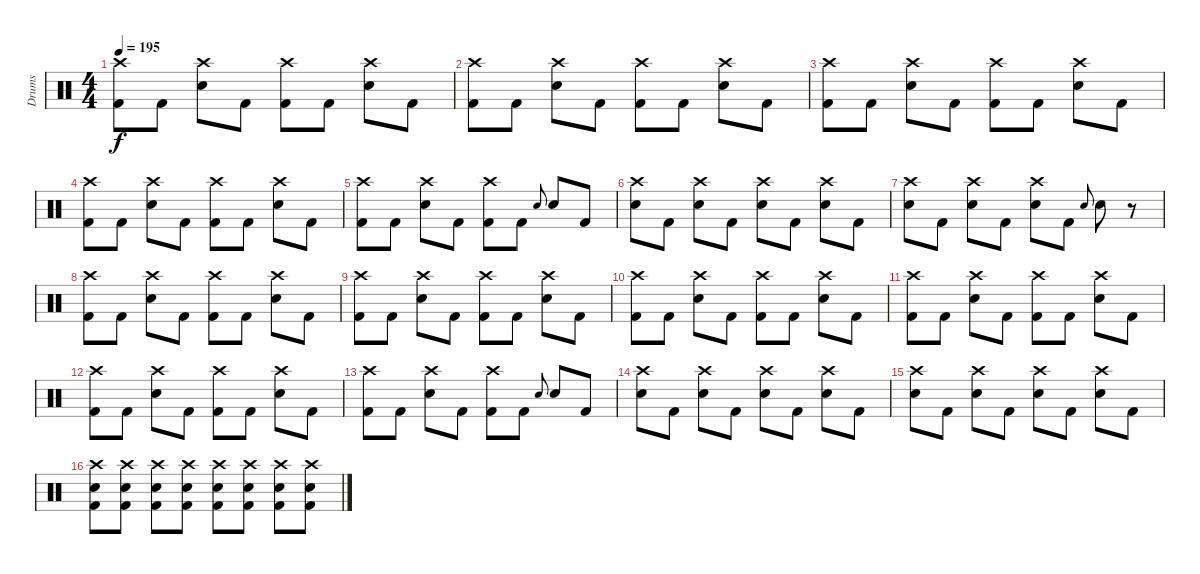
\track ("Drums" "Drums") {instrument percussion}
\staff {score}
\articulation defaults
\ts (4 4)
\tempo 195
\clef neutral
\ks c
("Crash high (hit)" "Kick (hit) 2").8{dy f} "Kick (hit) 2".8 ("Crash high (hit)" "Electric Snare (hit)").8 "Kick (hit) 2".8 ("Crash high (hit)" "Kick (hit) 2").8 "Kick (hit) 2".8 ("Crash high (hit)" "Electric Snare (hit)").8 "Kick (hit) 2".8 |
("Crash high (hit)" "Kick (hit) 2").8 "Kick (hit) 2".8 ("Crash high (hit)" "Electric Snare (hit)").8 "Kick (hit) 2".8 ("Crash high (hit)" "Kick (hit) 2").8 "Kick (hit) 2".8 ("Crash high (hit)" "Electric Snare (hit)").8 "Kick (hit) 2".8 |
("Crash high (hit)" "Kick (hit) 2").8 "Kick (hit) 2".8 ("Crash high (hit)" "Electric Snare (hit)").8 "Kick (hit) 2".8 ("Crash high (hit)" "Kick (hit) 2").8 "Kick (hit) 2".8 ("Crash high (hit)" "Electric Snare (hit)").8 "Kick (hit) 2".8 |
("Crash high (hit)" "Kick (hit) 2").8 "Kick (hit) 2".8 ("Crash high (hit)" "Electric Snare (hit)").8 "Kick (hit) 2".8 ("Crash high (hit)" "Kick (hit) 2").8 "Kick (hit) 2".8 ("Crash high (hit)" "Electric Snare (hit)").8 "Kick (hit) 2".8 |
("Crash high (hit)" "Kick (hit) 2").8 "Kick (hit) 2".8 ("Crash high (hit)" "Electric Snare (hit)").8 "Kick (hit) 2".8 ("Crash high (hit)" "Kick (hit) 2").8 "Kick (hit) 2".8 "Electric Snare (hit)".8{gr onbeat} "Electric Snare (hit)".8 "Kick (hit) 2".8 |
("Crash high (hit)" "Electric Snare (hit)").8 "Kick (hit) 2".8 ("Crash high (hit)" "Electric Snare (hit)").8 "Kick (hit) 2".8 ("Crash high (hit)" "Electric Snare (hit)").8 "Kick (hit) 2".8 ("Crash high (hit)" "Electric Snare (hit)").8 "Kick (hit) 2".8 |
("Crash high (hit)" "Electric Snare (hit)").8 "Kick (hit) 2".8 ("Crash high (hit)" "Electric Snare (hit)").8 "Kick (hit) 2".8 ("Crash high (hit)" "Electric Snare (hit)").8 "Kick (hit) 2".8 "Electric Snare (hit)".8{gr onbeat} "Electric Snare (hit)".8 r.8 |
("Crash high (hit)" "Kick (hit) 2").8 "Kick (hit) 2".8 ("Crash high (hit)" "Electric Snare (hit)").8 "Kick (hit) 2".8 ("Crash high (hit)" "Kick (hit) 2").8 "Kick (hit) 2".8 ("Crash high (hit)" "Electric Snare (hit)").8 "Kick (hit) 2".8 |
("Crash high (hit)" "Kick (hit) 2").8 "Kick (hit) 2".8 ("Crash high (hit)" "Electric Snare (hit)").8 "Kick (hit) 2".8 ("Crash high (hit)" "Kick (hit) 2").8 "Kick (hit) 2".8 ("Crash high (hit)" "Electric Snare (hit)").8 "Kick (hit) 2".8 |
("Crash high (hit)" "Kick (hit) 2").8 "Kick (hit) 2".8 ("Crash high (hit)" "Electric Snare (hit)").8 "Kick (hit) 2".8 ("Crash high (hit)" "Kick (hit) 2").8 "Kick (hit) 2".8 ("Crash high (hit)" "Electric Snare (hit)").8 "Kick (hit) 2".8 |
("Crash high (hit)" "Kick (hit) 2").8 "Kick (hit) 2".8 ("Crash high (hit)" "Electric Snare (hit)").8 "Kick (hit) 2".8 ("Crash high (hit)" "Kick (hit) 2").8 "Kick (hit) 2".8 ("Crash high (hit)" "Electric Snare (hit)").8 "Kick (hit) 2".8 |
("Crash high (hit)" "Kick (hit) 2").8 "Kick (hit) 2".8 ("Crash high (hit)" "Electric Snare (hit)").8 "Kick (hit) 2".8 ("Crash high (hit)" "Kick (hit) 2").8 "Kick (hit) 2".8 ("Crash high (hit)" "Electric Snare (hit)").8 "Kick (hit) 2".8 |
("Crash high (hit)" "Kick (hit) 2").8 "Kick (hit) 2".8 ("Crash high (hit)" "Electric Snare (hit)").8 "Kick (hit) 2".8 ("Crash high (hit)" "Kick (hit) 2").8 "Kick (hit) 2".8 "Electric Snare (hit)".8{gr onbeat} "Electric Snare (hit)".8 "Kick (hit) 2".8 |
("Crash high (hit)" "Electric Snare (hit)").8 "Kick (hit) 2".8 ("Crash high (hit)" "Electric Snare (hit)").8 "Kick (hit) 2".8 ("Crash high (hit)" "Electric Snare (hit)").8 "Kick (hit) 2".8 ("Crash high (hit)" "Electric Snare (hit)").8 "Kick (hit) 2".8 |
("Crash high (hit)" "Electric Snare (hit)").8 "Kick (hit) 2".8 ("Crash high (hit)" "Electric Snare (hit)").8 "Kick (hit) 2".8 ("Crash high (hit)" "Electric Snare (hit)").8 "Kick (hit) 2".8 ("Crash high (hit)" "Electric Snare (hit)").8 "Kick (hit) 2".8 |
("Crash high (hit)" "Electric Snare (hit)" "Kick (hit) 2").8 ("Crash high (hit)" "Electric Snare (hit)" "Kick (hit) 2").8 ("Crash high (hit)" "Electric Snare (hit)" "Kick (hit) 2").8 ("Crash high (hit)" "Electric Snare (hit)" "Kick (hit) 2").8 ("Crash high (hit)" "Electric Snare (hit)" "Kick (hit) 2").8 ("Crash high (hit)" "Electric Snare (hit)" "Kick (hit) 2").8 ("Crash high (hit)" "Electric Snare (hit)" "Kick (hit) 2").8 ("Crash high (hit)" "Electric Snare (hit)" "Kick (hit) 2").8
